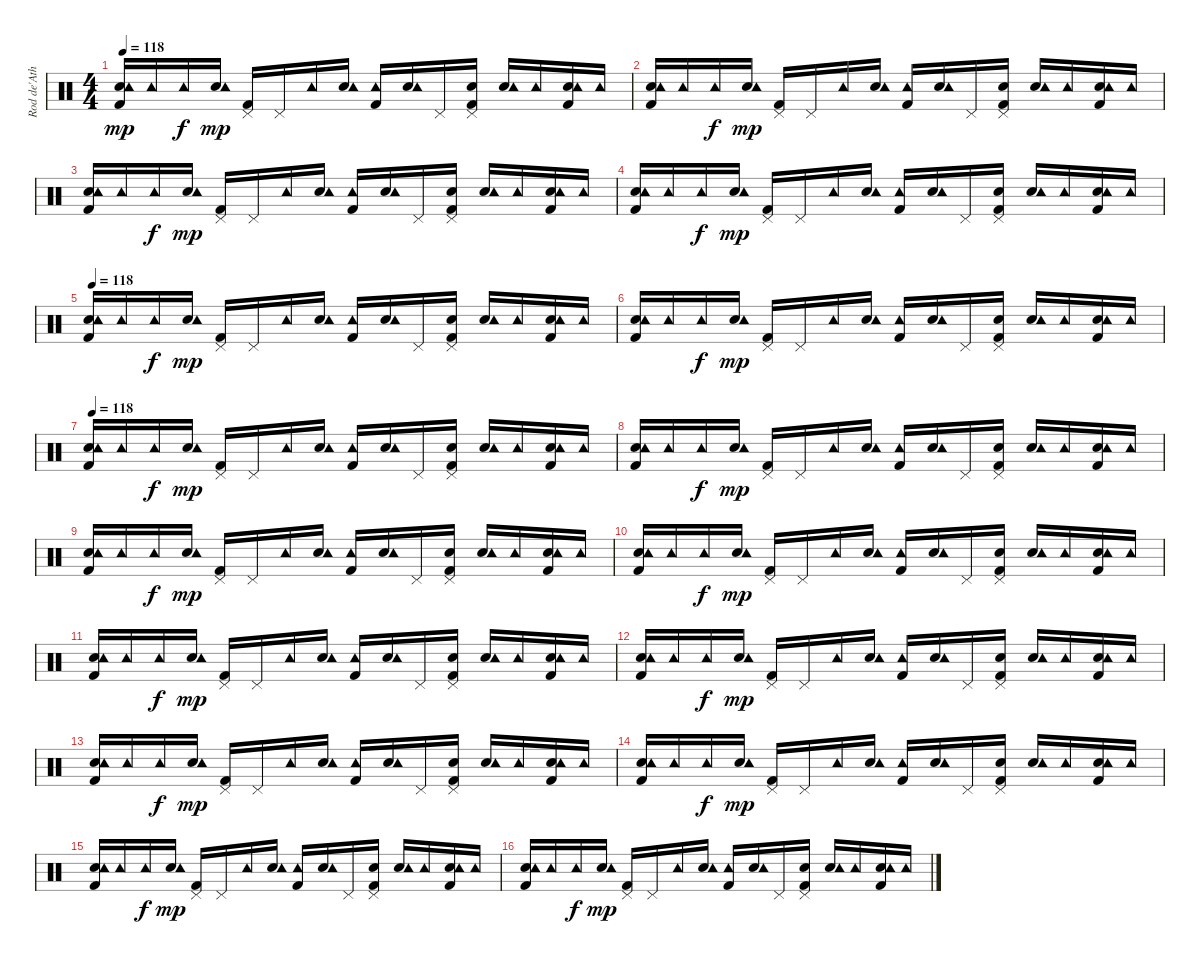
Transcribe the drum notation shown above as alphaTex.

\track ("Rod de'Ath" "Rod de'Ath") {instrument percussion}
\staff {score}
\articulation defaults
\ts (4 4)
\tempo 118
\clef neutral
\ks c
("Snare (hit) 2" "Tambourine (hit)" "Kick (hit) 2").16{dy mp} "Tambourine (hit)".16 "Tambourine (hit)".16{dy f} ("Snare (hit) 2" "Tambourine (hit)").16{dy mp} ("Pedal Hi-Hat (hit)" "Kick (hit) 2").16 "Pedal Hi-Hat (hit)".16 "Tambourine (hit)".16 ("Snare (hit) 2" "Tambourine (hit)").16 ("Tambourine (hit)" "Kick (hit) 2").16 ("Snare (hit) 2" "Tambourine (hit)").16 "Pedal Hi-Hat (hit)".16 ("Snare (hit) 2" "Pedal Hi-Hat (hit)" "Kick (hit) 2").16 ("Snare (hit) 2" "Tambourine (hit)").16 "Tambourine (hit)".16 ("Snare (hit) 2" "Tambourine (hit)" "Kick (hit) 2").16 "Tambourine (hit)".16 |
("Snare (hit) 2" "Tambourine (hit)" "Kick (hit) 2").16 "Tambourine (hit)".16 "Tambourine (hit)".16{dy f} ("Snare (hit) 2" "Tambourine (hit)").16{dy mp} ("Pedal Hi-Hat (hit)" "Kick (hit) 2").16 "Pedal Hi-Hat (hit)".16 "Tambourine (hit)".16 ("Snare (hit) 2" "Tambourine (hit)").16 ("Tambourine (hit)" "Kick (hit) 2").16 ("Snare (hit) 2" "Tambourine (hit)").16 "Pedal Hi-Hat (hit)".16 ("Snare (hit) 2" "Pedal Hi-Hat (hit)" "Kick (hit) 2").16 ("Snare (hit) 2" "Tambourine (hit)").16 "Tambourine (hit)".16 ("Snare (hit) 2" "Tambourine (hit)" "Kick (hit) 2").16 "Tambourine (hit)".16 |
("Snare (hit) 2" "Tambourine (hit)" "Kick (hit) 2").16 "Tambourine (hit)".16 "Tambourine (hit)".16{dy f} ("Snare (hit) 2" "Tambourine (hit)").16{dy mp} ("Pedal Hi-Hat (hit)" "Kick (hit) 2").16 "Pedal Hi-Hat (hit)".16 "Tambourine (hit)".16 ("Snare (hit) 2" "Tambourine (hit)").16 ("Tambourine (hit)" "Kick (hit) 2").16 ("Snare (hit) 2" "Tambourine (hit)").16 "Pedal Hi-Hat (hit)".16 ("Snare (hit) 2" "Pedal Hi-Hat (hit)" "Kick (hit) 2").16 ("Snare (hit) 2" "Tambourine (hit)").16 "Tambourine (hit)".16 ("Snare (hit) 2" "Tambourine (hit)" "Kick (hit) 2").16 "Tambourine (hit)".16 |
("Snare (hit) 2" "Tambourine (hit)" "Kick (hit) 2").16 "Tambourine (hit)".16 "Tambourine (hit)".16{dy f} ("Snare (hit) 2" "Tambourine (hit)").16{dy mp} ("Pedal Hi-Hat (hit)" "Kick (hit) 2").16 "Pedal Hi-Hat (hit)".16 "Tambourine (hit)".16 ("Snare (hit) 2" "Tambourine (hit)").16 ("Tambourine (hit)" "Kick (hit) 2").16 ("Snare (hit) 2" "Tambourine (hit)").16 "Pedal Hi-Hat (hit)".16 ("Snare (hit) 2" "Pedal Hi-Hat (hit)" "Kick (hit) 2").16 ("Snare (hit) 2" "Tambourine (hit)").16 "Tambourine (hit)".16 ("Snare (hit) 2" "Tambourine (hit)" "Kick (hit) 2").16 "Tambourine (hit)".16 |
\tempo 118
("Snare (hit) 2" "Tambourine (hit)" "Kick (hit) 2").16 "Tambourine (hit)".16 "Tambourine (hit)".16{dy f} ("Snare (hit) 2" "Tambourine (hit)").16{dy mp} ("Pedal Hi-Hat (hit)" "Kick (hit) 2").16 "Pedal Hi-Hat (hit)".16 "Tambourine (hit)".16 ("Snare (hit) 2" "Tambourine (hit)").16 ("Tambourine (hit)" "Kick (hit) 2").16 ("Snare (hit) 2" "Tambourine (hit)").16 "Pedal Hi-Hat (hit)".16 ("Snare (hit) 2" "Pedal Hi-Hat (hit)" "Kick (hit) 2").16 ("Snare (hit) 2" "Tambourine (hit)").16 "Tambourine (hit)".16 ("Snare (hit) 2" "Tambourine (hit)" "Kick (hit) 2").16 "Tambourine (hit)".16 |
("Snare (hit) 2" "Tambourine (hit)" "Kick (hit) 2").16 "Tambourine (hit)".16 "Tambourine (hit)".16{dy f} ("Snare (hit) 2" "Tambourine (hit)").16{dy mp} ("Pedal Hi-Hat (hit)" "Kick (hit) 2").16 "Pedal Hi-Hat (hit)".16 "Tambourine (hit)".16 ("Snare (hit) 2" "Tambourine (hit)").16 ("Tambourine (hit)" "Kick (hit) 2").16 ("Snare (hit) 2" "Tambourine (hit)").16 "Pedal Hi-Hat (hit)".16 ("Snare (hit) 2" "Pedal Hi-Hat (hit)" "Kick (hit) 2").16 ("Snare (hit) 2" "Tambourine (hit)").16 "Tambourine (hit)".16 ("Snare (hit) 2" "Tambourine (hit)" "Kick (hit) 2").16 "Tambourine (hit)".16 |
\tempo 118
("Snare (hit) 2" "Tambourine (hit)" "Kick (hit) 2").16 "Tambourine (hit)".16 "Tambourine (hit)".16{dy f} ("Snare (hit) 2" "Tambourine (hit)").16{dy mp} ("Pedal Hi-Hat (hit)" "Kick (hit) 2").16 "Pedal Hi-Hat (hit)".16 "Tambourine (hit)".16 ("Snare (hit) 2" "Tambourine (hit)").16 ("Tambourine (hit)" "Kick (hit) 2").16 ("Snare (hit) 2" "Tambourine (hit)").16 "Pedal Hi-Hat (hit)".16 ("Snare (hit) 2" "Pedal Hi-Hat (hit)" "Kick (hit) 2").16 ("Snare (hit) 2" "Tambourine (hit)").16 "Tambourine (hit)".16 ("Snare (hit) 2" "Tambourine (hit)" "Kick (hit) 2").16 "Tambourine (hit)".16 |
("Snare (hit) 2" "Tambourine (hit)" "Kick (hit) 2").16 "Tambourine (hit)".16 "Tambourine (hit)".16{dy f} ("Snare (hit) 2" "Tambourine (hit)").16{dy mp} ("Pedal Hi-Hat (hit)" "Kick (hit) 2").16 "Pedal Hi-Hat (hit)".16 "Tambourine (hit)".16 ("Snare (hit) 2" "Tambourine (hit)").16 ("Tambourine (hit)" "Kick (hit) 2").16 ("Snare (hit) 2" "Tambourine (hit)").16 "Pedal Hi-Hat (hit)".16 ("Snare (hit) 2" "Pedal Hi-Hat (hit)" "Kick (hit) 2").16 ("Snare (hit) 2" "Tambourine (hit)").16 "Tambourine (hit)".16 ("Snare (hit) 2" "Tambourine (hit)" "Kick (hit) 2").16 "Tambourine (hit)".16 |
("Snare (hit) 2" "Tambourine (hit)" "Kick (hit) 2").16 "Tambourine (hit)".16 "Tambourine (hit)".16{dy f} ("Snare (hit) 2" "Tambourine (hit)").16{dy mp} ("Pedal Hi-Hat (hit)" "Kick (hit) 2").16 "Pedal Hi-Hat (hit)".16 "Tambourine (hit)".16 ("Snare (hit) 2" "Tambourine (hit)").16 ("Tambourine (hit)" "Kick (hit) 2").16 ("Snare (hit) 2" "Tambourine (hit)").16 "Pedal Hi-Hat (hit)".16 ("Snare (hit) 2" "Pedal Hi-Hat (hit)" "Kick (hit) 2").16 ("Snare (hit) 2" "Tambourine (hit)").16 "Tambourine (hit)".16 ("Snare (hit) 2" "Tambourine (hit)" "Kick (hit) 2").16 "Tambourine (hit)".16 |
("Snare (hit) 2" "Tambourine (hit)" "Kick (hit) 2").16{volume 15} "Tambourine (hit)".16 "Tambourine (hit)".16{dy f} ("Snare (hit) 2" "Tambourine (hit)").16{dy mp} ("Pedal Hi-Hat (hit)" "Kick (hit) 2").16 "Pedal Hi-Hat (hit)".16 "Tambourine (hit)".16 ("Snare (hit) 2" "Tambourine (hit)").16 ("Tambourine (hit)" "Kick (hit) 2").16 ("Snare (hit) 2" "Tambourine (hit)").16 "Pedal Hi-Hat (hit)".16 ("Snare (hit) 2" "Pedal Hi-Hat (hit)" "Kick (hit) 2").16 ("Snare (hit) 2" "Tambourine (hit)").16 "Tambourine (hit)".16 ("Snare (hit) 2" "Tambourine (hit)" "Kick (hit) 2").16 "Tambourine (hit)".16 |
("Snare (hit) 2" "Tambourine (hit)" "Kick (hit) 2").16 "Tambourine (hit)".16 "Tambourine (hit)".16{dy f} ("Snare (hit) 2" "Tambourine (hit)").16{dy mp} ("Pedal Hi-Hat (hit)" "Kick (hit) 2").16 "Pedal Hi-Hat (hit)".16 "Tambourine (hit)".16 ("Snare (hit) 2" "Tambourine (hit)").16 ("Tambourine (hit)" "Kick (hit) 2").16 ("Snare (hit) 2" "Tambourine (hit)").16 "Pedal Hi-Hat (hit)".16 ("Snare (hit) 2" "Pedal Hi-Hat (hit)" "Kick (hit) 2").16 ("Snare (hit) 2" "Tambourine (hit)").16 "Tambourine (hit)".16 ("Snare (hit) 2" "Tambourine (hit)" "Kick (hit) 2").16 "Tambourine (hit)".16 |
("Snare (hit) 2" "Tambourine (hit)" "Kick (hit) 2").16 "Tambourine (hit)".16 "Tambourine (hit)".16{dy f} ("Snare (hit) 2" "Tambourine (hit)").16{dy mp} ("Pedal Hi-Hat (hit)" "Kick (hit) 2").16 "Pedal Hi-Hat (hit)".16 "Tambourine (hit)".16 ("Snare (hit) 2" "Tambourine (hit)").16 ("Tambourine (hit)" "Kick (hit) 2").16 ("Snare (hit) 2" "Tambourine (hit)").16 "Pedal Hi-Hat (hit)".16 ("Snare (hit) 2" "Pedal Hi-Hat (hit)" "Kick (hit) 2").16 ("Snare (hit) 2" "Tambourine (hit)").16 "Tambourine (hit)".16 ("Snare (hit) 2" "Tambourine (hit)" "Kick (hit) 2").16 "Tambourine (hit)".16 |
("Snare (hit) 2" "Tambourine (hit)" "Kick (hit) 2").16 "Tambourine (hit)".16 "Tambourine (hit)".16{dy f} ("Snare (hit) 2" "Tambourine (hit)").16{dy mp} ("Pedal Hi-Hat (hit)" "Kick (hit) 2").16 "Pedal Hi-Hat (hit)".16 "Tambourine (hit)".16 ("Snare (hit) 2" "Tambourine (hit)").16 ("Tambourine (hit)" "Kick (hit) 2").16 ("Snare (hit) 2" "Tambourine (hit)").16 "Pedal Hi-Hat (hit)".16 ("Snare (hit) 2" "Pedal Hi-Hat (hit)" "Kick (hit) 2").16 ("Snare (hit) 2" "Tambourine (hit)").16 "Tambourine (hit)".16 ("Snare (hit) 2" "Tambourine (hit)" "Kick (hit) 2").16 "Tambourine (hit)".16 |
("Snare (hit) 2" "Tambourine (hit)" "Kick (hit) 2").16 "Tambourine (hit)".16 "Tambourine (hit)".16{dy f} ("Snare (hit) 2" "Tambourine (hit)").16{dy mp} ("Pedal Hi-Hat (hit)" "Kick (hit) 2").16 "Pedal Hi-Hat (hit)".16 "Tambourine (hit)".16 ("Snare (hit) 2" "Tambourine (hit)").16 ("Tambourine (hit)" "Kick (hit) 2").16 ("Snare (hit) 2" "Tambourine (hit)").16 "Pedal Hi-Hat (hit)".16 ("Snare (hit) 2" "Pedal Hi-Hat (hit)" "Kick (hit) 2").16 ("Snare (hit) 2" "Tambourine (hit)").16 "Tambourine (hit)".16 ("Snare (hit) 2" "Tambourine (hit)" "Kick (hit) 2").16 "Tambourine (hit)".16 |
("Snare (hit) 2" "Tambourine (hit)" "Kick (hit) 2").16 "Tambourine (hit)".16 "Tambourine (hit)".16{dy f} ("Snare (hit) 2" "Tambourine (hit)").16{dy mp} ("Pedal Hi-Hat (hit)" "Kick (hit) 2").16 "Pedal Hi-Hat (hit)".16 "Tambourine (hit)".16 ("Snare (hit) 2" "Tambourine (hit)").16 ("Tambourine (hit)" "Kick (hit) 2").16 ("Snare (hit) 2" "Tambourine (hit)").16 "Pedal Hi-Hat (hit)".16 ("Snare (hit) 2" "Pedal Hi-Hat (hit)" "Kick (hit) 2").16 ("Snare (hit) 2" "Tambourine (hit)").16 "Tambourine (hit)".16 ("Snare (hit) 2" "Tambourine (hit)" "Kick (hit) 2").16 "Tambourine (hit)".16 |
("Snare (hit) 2" "Tambourine (hit)" "Kick (hit) 2").16 "Tambourine (hit)".16 "Tambourine (hit)".16{dy f} ("Snare (hit) 2" "Tambourine (hit)").16{dy mp} ("Pedal Hi-Hat (hit)" "Kick (hit) 2").16 "Pedal Hi-Hat (hit)".16 "Tambourine (hit)".16 ("Snare (hit) 2" "Tambourine (hit)").16 ("Tambourine (hit)" "Kick (hit) 2").16 ("Snare (hit) 2" "Tambourine (hit)").16 "Pedal Hi-Hat (hit)".16 ("Snare (hit) 2" "Pedal Hi-Hat (hit)" "Kick (hit) 2").16 ("Snare (hit) 2" "Tambourine (hit)").16 "Tambourine (hit)".16 ("Snare (hit) 2" "Tambourine (hit)" "Kick (hit) 2").16 "Tambourine (hit)".16
